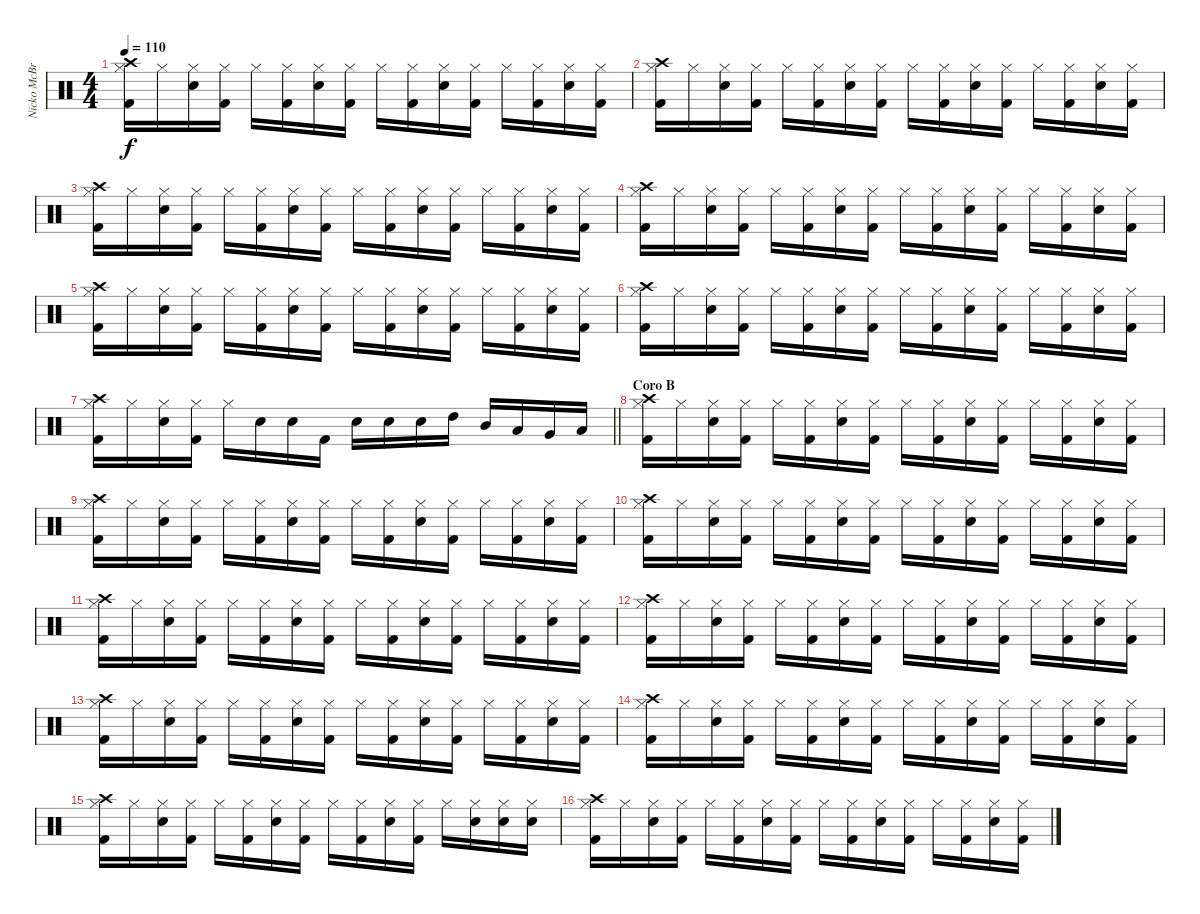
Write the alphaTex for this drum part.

\track ("Nicko McBrain" "Nicko McBr") {instrument percussion}
\staff {score}
\articulation defaults
\ts (4 4)
\tempo 110
\clef neutral
\ks c
("Kick (hit) 2" "Hi-Hat (closed)" "Crash high (hit)").16{dy f} "Hi-Hat (closed)".16 ("Snare (hit) 2" "Hi-Hat (closed)").16 ("Kick (hit) 2" "Hi-Hat (closed)").16 "Hi-Hat (closed)".16 ("Kick (hit) 2" "Hi-Hat (closed)").16 ("Snare (hit) 2" "Hi-Hat (closed)").16 ("Kick (hit) 2" "Hi-Hat (closed)").16 "Hi-Hat (closed)".16 ("Kick (hit) 2" "Hi-Hat (closed)").16 ("Snare (hit) 2" "Hi-Hat (closed)").16 ("Kick (hit) 2" "Hi-Hat (closed)").16 "Hi-Hat (closed)".16 ("Kick (hit) 2" "Hi-Hat (closed)").16 ("Snare (hit) 2" "Hi-Hat (closed)").16 ("Kick (hit) 2" "Hi-Hat (closed)").16 |
("Kick (hit) 2" "Hi-Hat (closed)" "Crash high (hit)").16 "Hi-Hat (closed)".16 ("Snare (hit) 2" "Hi-Hat (closed)").16 ("Kick (hit) 2" "Hi-Hat (closed)").16 "Hi-Hat (closed)".16 ("Kick (hit) 2" "Hi-Hat (closed)").16 ("Snare (hit) 2" "Hi-Hat (closed)").16 ("Kick (hit) 2" "Hi-Hat (closed)").16 "Hi-Hat (closed)".16 ("Kick (hit) 2" "Hi-Hat (closed)").16 ("Snare (hit) 2" "Hi-Hat (closed)").16 ("Kick (hit) 2" "Hi-Hat (closed)").16 "Hi-Hat (closed)".16 ("Kick (hit) 2" "Hi-Hat (closed)").16 ("Snare (hit) 2" "Hi-Hat (closed)").16 ("Kick (hit) 2" "Hi-Hat (closed)").16 |
("Kick (hit) 2" "Hi-Hat (closed)" "Crash high (hit)").16 "Hi-Hat (closed)".16 ("Snare (hit) 2" "Hi-Hat (closed)").16 ("Kick (hit) 2" "Hi-Hat (closed)").16 "Hi-Hat (closed)".16 ("Kick (hit) 2" "Hi-Hat (closed)").16 ("Snare (hit) 2" "Hi-Hat (closed)").16 ("Kick (hit) 2" "Hi-Hat (closed)").16 "Hi-Hat (closed)".16 ("Kick (hit) 2" "Hi-Hat (closed)").16 ("Snare (hit) 2" "Hi-Hat (closed)").16 ("Kick (hit) 2" "Hi-Hat (closed)").16 "Hi-Hat (closed)".16 ("Kick (hit) 2" "Hi-Hat (closed)").16 ("Snare (hit) 2" "Hi-Hat (closed)").16 ("Kick (hit) 2" "Hi-Hat (closed)").16 |
("Kick (hit) 2" "Hi-Hat (closed)" "Crash high (hit)").16 "Hi-Hat (closed)".16 ("Snare (hit) 2" "Hi-Hat (closed)").16 ("Kick (hit) 2" "Hi-Hat (closed)").16 "Hi-Hat (closed)".16 ("Kick (hit) 2" "Hi-Hat (closed)").16 ("Snare (hit) 2" "Hi-Hat (closed)").16 ("Kick (hit) 2" "Hi-Hat (closed)").16 "Hi-Hat (closed)".16 ("Kick (hit) 2" "Hi-Hat (closed)").16 ("Snare (hit) 2" "Hi-Hat (closed)").16 ("Kick (hit) 2" "Hi-Hat (closed)").16 "Hi-Hat (closed)".16 ("Kick (hit) 2" "Hi-Hat (closed)").16 ("Snare (hit) 2" "Hi-Hat (closed)").16 ("Kick (hit) 2" "Hi-Hat (closed)").16 |
("Kick (hit) 2" "Hi-Hat (closed)" "Crash high (hit)").16 "Hi-Hat (closed)".16 ("Snare (hit) 2" "Hi-Hat (closed)").16 ("Kick (hit) 2" "Hi-Hat (closed)").16 "Hi-Hat (closed)".16 ("Kick (hit) 2" "Hi-Hat (closed)").16 ("Snare (hit) 2" "Hi-Hat (closed)").16 ("Kick (hit) 2" "Hi-Hat (closed)").16 "Hi-Hat (closed)".16 ("Kick (hit) 2" "Hi-Hat (closed)").16 ("Snare (hit) 2" "Hi-Hat (closed)").16 ("Kick (hit) 2" "Hi-Hat (closed)").16 "Hi-Hat (closed)".16 ("Kick (hit) 2" "Hi-Hat (closed)").16 ("Snare (hit) 2" "Hi-Hat (closed)").16 ("Kick (hit) 2" "Hi-Hat (closed)").16 |
("Kick (hit) 2" "Hi-Hat (closed)" "Crash high (hit)").16 "Hi-Hat (closed)".16 ("Snare (hit) 2" "Hi-Hat (closed)").16 ("Kick (hit) 2" "Hi-Hat (closed)").16 "Hi-Hat (closed)".16 ("Kick (hit) 2" "Hi-Hat (closed)").16 ("Snare (hit) 2" "Hi-Hat (closed)").16 ("Kick (hit) 2" "Hi-Hat (closed)").16 "Hi-Hat (closed)".16 ("Kick (hit) 2" "Hi-Hat (closed)").16 ("Snare (hit) 2" "Hi-Hat (closed)").16 ("Kick (hit) 2" "Hi-Hat (closed)").16 "Hi-Hat (closed)".16 ("Kick (hit) 2" "Hi-Hat (closed)").16 ("Snare (hit) 2" "Hi-Hat (closed)").16 ("Kick (hit) 2" "Hi-Hat (closed)").16 |
\barLineRight lightlight
("Kick (hit) 2" "Hi-Hat (closed)" "Crash high (hit)").16 "Hi-Hat (closed)".16 ("Snare (hit) 2" "Hi-Hat (closed)").16 ("Kick (hit) 2" "Hi-Hat (closed)").16 "Hi-Hat (closed)".16 "Snare (hit) 2".16 "Snare (hit) 2".16 "Kick (hit) 2".16 "Snare (hit) 2".16 "Snare (hit) 2".16 "Snare (hit) 2".16 "High Tom (hit)".16 "Mid Tom (hit)".16 "Low Tom (hit)".16 "Very Low Tom (hit)".16 "Low Floor Tom (hit)".16 |
\section ("" "Coro B")
("Kick (hit) 2" "Hi-Hat (closed)" "Crash high (hit)").16 "Hi-Hat (closed)".16 ("Snare (hit) 2" "Hi-Hat (closed)").16 ("Kick (hit) 2" "Hi-Hat (closed)").16 "Hi-Hat (closed)".16 ("Kick (hit) 2" "Hi-Hat (closed)").16 ("Snare (hit) 2" "Hi-Hat (closed)").16 ("Kick (hit) 2" "Hi-Hat (closed)").16 "Hi-Hat (closed)".16 ("Kick (hit) 2" "Hi-Hat (closed)").16 ("Snare (hit) 2" "Hi-Hat (closed)").16 ("Kick (hit) 2" "Hi-Hat (closed)").16 "Hi-Hat (closed)".16 ("Kick (hit) 2" "Hi-Hat (closed)").16 ("Snare (hit) 2" "Hi-Hat (closed)").16 ("Kick (hit) 2" "Hi-Hat (closed)").16 |
("Kick (hit) 2" "Hi-Hat (closed)" "Crash high (hit)").16 "Hi-Hat (closed)".16 ("Snare (hit) 2" "Hi-Hat (closed)").16 ("Kick (hit) 2" "Hi-Hat (closed)").16 "Hi-Hat (closed)".16 ("Kick (hit) 2" "Hi-Hat (closed)").16 ("Snare (hit) 2" "Hi-Hat (closed)").16 ("Kick (hit) 2" "Hi-Hat (closed)").16 "Hi-Hat (closed)".16 ("Kick (hit) 2" "Hi-Hat (closed)").16 ("Snare (hit) 2" "Hi-Hat (closed)").16 ("Kick (hit) 2" "Hi-Hat (closed)").16 "Hi-Hat (closed)".16 ("Kick (hit) 2" "Hi-Hat (closed)").16 ("Snare (hit) 2" "Hi-Hat (closed)").16 ("Kick (hit) 2" "Hi-Hat (closed)").16 |
("Kick (hit) 2" "Hi-Hat (closed)" "Crash high (hit)").16 "Hi-Hat (closed)".16 ("Snare (hit) 2" "Hi-Hat (closed)").16 ("Kick (hit) 2" "Hi-Hat (closed)").16 "Hi-Hat (closed)".16 ("Kick (hit) 2" "Hi-Hat (closed)").16 ("Snare (hit) 2" "Hi-Hat (closed)").16 ("Kick (hit) 2" "Hi-Hat (closed)").16 "Hi-Hat (closed)".16 ("Kick (hit) 2" "Hi-Hat (closed)").16 ("Snare (hit) 2" "Hi-Hat (closed)").16 ("Kick (hit) 2" "Hi-Hat (closed)").16 "Hi-Hat (closed)".16 ("Kick (hit) 2" "Hi-Hat (closed)").16 ("Snare (hit) 2" "Hi-Hat (closed)").16 ("Kick (hit) 2" "Hi-Hat (closed)").16 |
("Kick (hit) 2" "Hi-Hat (closed)" "Crash high (hit)").16 "Hi-Hat (closed)".16 ("Snare (hit) 2" "Hi-Hat (closed)").16 ("Kick (hit) 2" "Hi-Hat (closed)").16 "Hi-Hat (closed)".16 ("Kick (hit) 2" "Hi-Hat (closed)").16 ("Snare (hit) 2" "Hi-Hat (closed)").16 ("Kick (hit) 2" "Hi-Hat (closed)").16 "Hi-Hat (closed)".16 ("Kick (hit) 2" "Hi-Hat (closed)").16 ("Snare (hit) 2" "Hi-Hat (closed)").16 ("Kick (hit) 2" "Hi-Hat (closed)").16 "Hi-Hat (closed)".16 ("Kick (hit) 2" "Hi-Hat (closed)").16 ("Snare (hit) 2" "Hi-Hat (closed)").16 ("Kick (hit) 2" "Hi-Hat (closed)").16 |
("Kick (hit) 2" "Hi-Hat (closed)" "Crash high (hit)").16 "Hi-Hat (closed)".16 ("Snare (hit) 2" "Hi-Hat (closed)").16 ("Kick (hit) 2" "Hi-Hat (closed)").16 "Hi-Hat (closed)".16 ("Kick (hit) 2" "Hi-Hat (closed)").16 ("Snare (hit) 2" "Hi-Hat (closed)").16 ("Kick (hit) 2" "Hi-Hat (closed)").16 "Hi-Hat (closed)".16 ("Kick (hit) 2" "Hi-Hat (closed)").16 ("Snare (hit) 2" "Hi-Hat (closed)").16 ("Kick (hit) 2" "Hi-Hat (closed)").16 "Hi-Hat (closed)".16 ("Kick (hit) 2" "Hi-Hat (closed)").16 ("Snare (hit) 2" "Hi-Hat (closed)").16 ("Kick (hit) 2" "Hi-Hat (closed)").16 |
("Kick (hit) 2" "Hi-Hat (closed)" "Crash high (hit)").16 "Hi-Hat (closed)".16 ("Snare (hit) 2" "Hi-Hat (closed)").16 ("Kick (hit) 2" "Hi-Hat (closed)").16 "Hi-Hat (closed)".16 ("Kick (hit) 2" "Hi-Hat (closed)").16 ("Snare (hit) 2" "Hi-Hat (closed)").16 ("Kick (hit) 2" "Hi-Hat (closed)").16 "Hi-Hat (closed)".16 ("Kick (hit) 2" "Hi-Hat (closed)").16 ("Snare (hit) 2" "Hi-Hat (closed)").16 ("Kick (hit) 2" "Hi-Hat (closed)").16 "Hi-Hat (closed)".16 ("Kick (hit) 2" "Hi-Hat (closed)").16 ("Snare (hit) 2" "Hi-Hat (closed)").16 ("Kick (hit) 2" "Hi-Hat (closed)").16 |
("Kick (hit) 2" "Hi-Hat (closed)" "Crash high (hit)").16 "Hi-Hat (closed)".16 ("Snare (hit) 2" "Hi-Hat (closed)").16 ("Kick (hit) 2" "Hi-Hat (closed)").16 "Hi-Hat (closed)".16 ("Kick (hit) 2" "Hi-Hat (closed)").16 ("Snare (hit) 2" "Hi-Hat (closed)").16 ("Kick (hit) 2" "Hi-Hat (closed)").16 "Hi-Hat (closed)".16 ("Kick (hit) 2" "Hi-Hat (closed)").16 ("Snare (hit) 2" "Hi-Hat (closed)").16 ("Kick (hit) 2" "Hi-Hat (closed)").16 "Hi-Hat (closed)".16 ("Kick (hit) 2" "Hi-Hat (closed)").16 ("Snare (hit) 2" "Hi-Hat (closed)").16 ("Kick (hit) 2" "Hi-Hat (closed)").16 |
("Kick (hit) 2" "Hi-Hat (closed)" "Crash high (hit)").16 "Hi-Hat (closed)".16 ("Snare (hit) 2" "Hi-Hat (closed)").16 ("Kick (hit) 2" "Hi-Hat (closed)").16 "Hi-Hat (closed)".16 ("Kick (hit) 2" "Hi-Hat (closed)").16 ("Snare (hit) 2" "Hi-Hat (closed)").16 ("Kick (hit) 2" "Hi-Hat (closed)").16 "Hi-Hat (closed)".16 ("Kick (hit) 2" "Hi-Hat (closed)").16 ("Snare (hit) 2" "Hi-Hat (closed)").16 ("Kick (hit) 2" "Hi-Hat (closed)").16 "Hi-Hat (closed)".16 ("Snare (hit) 2" "Hi-Hat (closed)").16 ("Snare (hit) 2" "Hi-Hat (closed)").16 ("Snare (hit) 2" "Hi-Hat (closed)").16 |
("Kick (hit) 2" "Hi-Hat (closed)" "Crash high (hit)").16 "Hi-Hat (closed)".16 ("Snare (hit) 2" "Hi-Hat (closed)").16 ("Kick (hit) 2" "Hi-Hat (closed)").16 "Hi-Hat (closed)".16 ("Kick (hit) 2" "Hi-Hat (closed)").16 ("Snare (hit) 2" "Hi-Hat (closed)").16 ("Kick (hit) 2" "Hi-Hat (closed)").16 "Hi-Hat (closed)".16 ("Kick (hit) 2" "Hi-Hat (closed)").16 ("Snare (hit) 2" "Hi-Hat (closed)").16 ("Kick (hit) 2" "Hi-Hat (closed)").16 "Hi-Hat (closed)".16 ("Kick (hit) 2" "Hi-Hat (closed)").16 ("Snare (hit) 2" "Hi-Hat (closed)").16 ("Kick (hit) 2" "Hi-Hat (closed)").16
